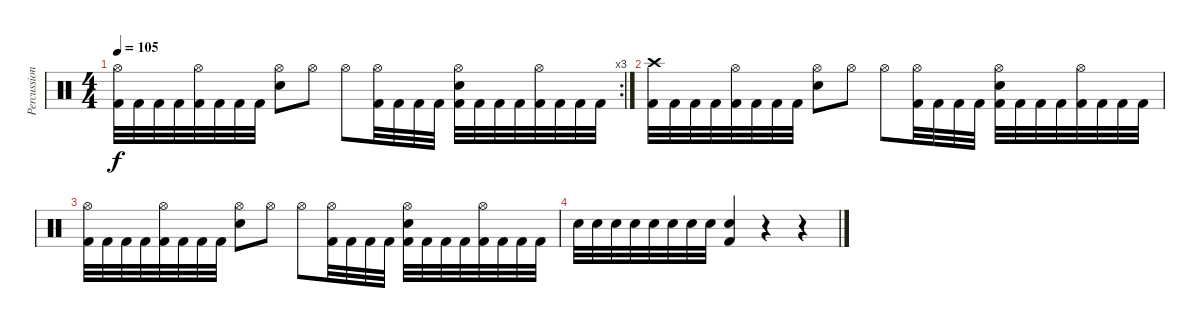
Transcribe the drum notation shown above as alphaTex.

\track ("Percussion" "Percussion") {instrument percussion}
\staff {score}
\articulation defaults
\rc 3
\ts (4 4)
\tempo 105
\clef neutral
\ks c
("Hi-Hat (open)" "Kick (hit) 2").32{dy f} "Kick (hit) 2".32 "Kick (hit) 2".32 "Kick (hit) 2".32 ("Hi-Hat (open)" "Kick (hit) 2").32 "Kick (hit) 2".32 "Kick (hit) 2".32 "Kick (hit) 2".32 ("Hi-Hat (open)" "Snare (hit) 2").8 "Hi-Hat (open)".8 "Hi-Hat (open)".8 ("Hi-Hat (open)" "Kick (hit) 2").32 "Kick (hit) 2".32 "Kick (hit) 2".32 "Kick (hit) 2".32 ("Hi-Hat (open)" "Snare (hit) 2" "Kick (hit) 2").32 "Kick (hit) 2".32 "Kick (hit) 2".32 "Kick (hit) 2".32 ("Hi-Hat (open)" "Kick (hit) 2").32 "Kick (hit) 2".32 "Kick (hit) 2".32 "Kick (hit) 2".32 |
("Crash high (hit)" "Kick (hit) 2").32 "Kick (hit) 2".32 "Kick (hit) 2".32 "Kick (hit) 2".32 ("Hi-Hat (open)" "Kick (hit) 2").32 "Kick (hit) 2".32 "Kick (hit) 2".32 "Kick (hit) 2".32 ("Hi-Hat (open)" "Snare (hit) 2").8 "Hi-Hat (open)".8 "Hi-Hat (open)".8 ("Hi-Hat (open)" "Kick (hit) 2").32 "Kick (hit) 2".32 "Kick (hit) 2".32 "Kick (hit) 2".32 ("Hi-Hat (open)" "Snare (hit) 2" "Kick (hit) 2").32 "Kick (hit) 2".32 "Kick (hit) 2".32 "Kick (hit) 2".32 ("Hi-Hat (open)" "Kick (hit) 2").32 "Kick (hit) 2".32 "Kick (hit) 2".32 "Kick (hit) 2".32 |
("Hi-Hat (open)" "Kick (hit) 2").32 "Kick (hit) 2".32 "Kick (hit) 2".32 "Kick (hit) 2".32 ("Hi-Hat (open)" "Kick (hit) 2").32 "Kick (hit) 2".32 "Kick (hit) 2".32 "Kick (hit) 2".32 ("Hi-Hat (open)" "Snare (hit) 2").8 "Hi-Hat (open)".8 "Hi-Hat (open)".8 ("Hi-Hat (open)" "Kick (hit) 2").32 "Kick (hit) 2".32 "Kick (hit) 2".32 "Kick (hit) 2".32 ("Hi-Hat (open)" "Snare (hit) 2" "Kick (hit) 2").32 "Kick (hit) 2".32 "Kick (hit) 2".32 "Kick (hit) 2".32 ("Hi-Hat (open)" "Kick (hit) 2").32 "Kick (hit) 2".32 "Kick (hit) 2".32 "Kick (hit) 2".32 |
"Snare (hit) 2".32 "Snare (hit) 2".32 "Snare (hit) 2".32 "Snare (hit) 2".32 "Snare (hit) 2".32 "Snare (hit) 2".32 "Snare (hit) 2".32 "Snare (hit) 2".32 ("Snare (hit) 2" "Kick (hit) 2").4 r.4 r.4
